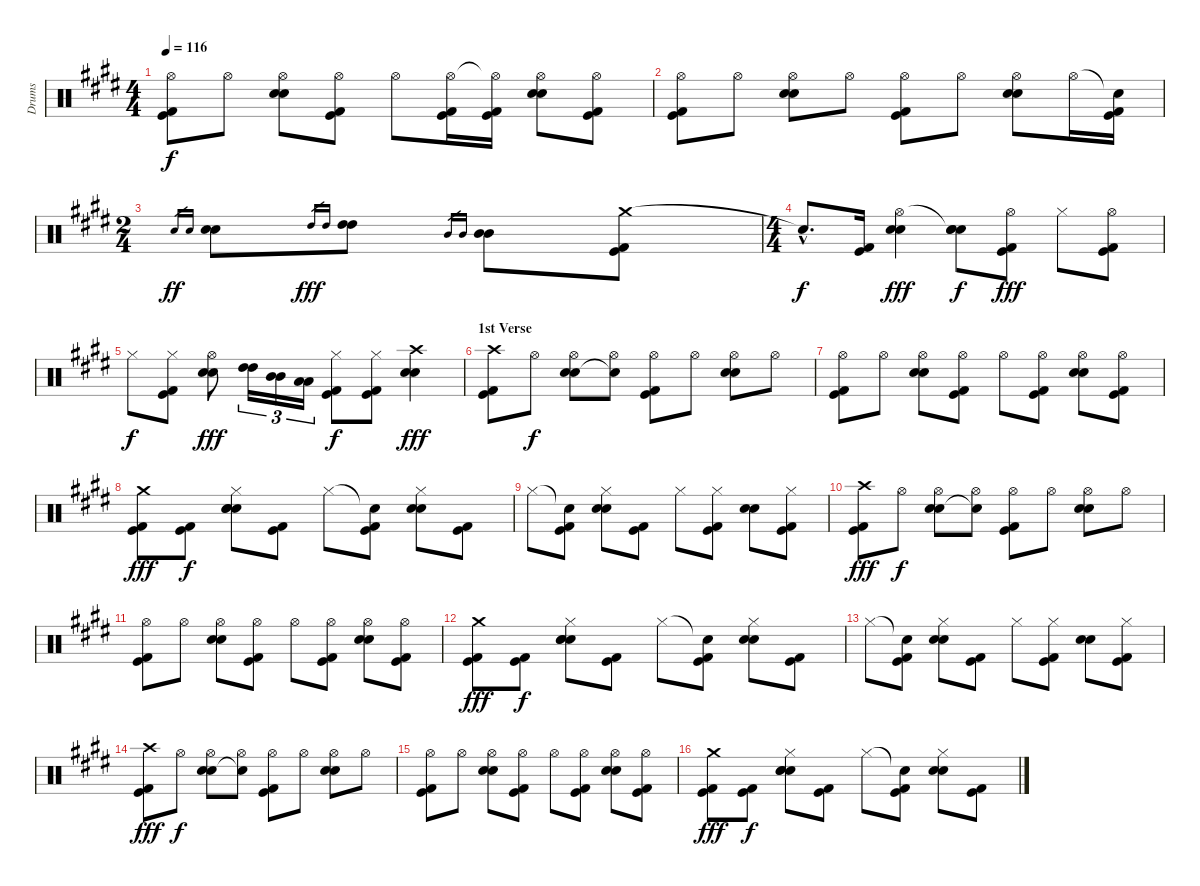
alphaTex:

\track ("Drums" "Drums") {instrument percussion}
\staff {score}
\articulation defaults
\ts (4 4)
\tempo 116
\clef neutral
\ks e
("Hi-Hat (open)" "Kick (hit)" "Kick (hit) 2").8{dy f} "Hi-Hat (open)".8 ("Hi-Hat (open)" "Electric Snare (hit)" "Snare (hit) 2").8 ("Hi-Hat (open)" "Kick (hit)" "Kick (hit) 2").8 "Hi-Hat (open)".8 ("Hi-Hat (open)" "Kick (hit)" "Kick (hit) 2").16 ("Hi-Hat (open)"{t} "Kick (hit)" "Kick (hit) 2").16 ("Hi-Hat (open)" "Electric Snare (hit)" "Snare (hit) 2").8 ("Hi-Hat (open)" "Kick (hit)" "Kick (hit) 2").8 |
("Hi-Hat (open)" "Kick (hit)" "Kick (hit) 2").8 "Hi-Hat (open)".8 ("Hi-Hat (open)" "Electric Snare (hit)" "Snare (hit) 2").8 "Hi-Hat (open)".8 ("Hi-Hat (open)" "Kick (hit)" "Kick (hit) 2").8 "Hi-Hat (open)".8 ("Hi-Hat (open)" "Electric Snare (hit)" "Snare (hit) 2").8 "Hi-Hat (open)".16 ("Snare (hit)"{t} "Kick (hit)" "Kick (hit) 2").16 |
\ts (2 4)
"Electric Snare (hit)".16{gr dy ff} "Snare (hit) 2".16{gr} ("Electric Snare (hit)" "Snare (hit) 2").8 "High Tom (hit)".16{gr dy fff} "High Tom (hit)".16{gr} ("High Tom (hit)" "High Tom (hit)").8 "Mid Tom (hit)".16{gr} "Mid Tom (hit)".16{gr} ("Mid Tom (hit)" "Mid Tom (hit)").8 ("Crash medium (hit)" "Kick (hit)" "Kick (hit) 2").8 |
\ts (4 4)
"Snare (hit)"{hac t}.8{d dy f} ("Kick (hit)" "Kick (hit) 2").16 ("Hi-Hat (open)" "Electric Snare (hit)" "Snare (hit) 2").4{dy fff} ("Snare (hit)"{t} "Electric Snare (hit)" "Snare (hit) 2").8{dy f} ("Hi-Hat (open)" "Kick (hit)" "Kick (hit) 2").8{dy fff} "Hi-Hat (closed)".8 ("Hi-Hat (open)" "Kick (hit)" "Kick (hit) 2").8 |
"Hi-Hat (closed)".8{dy f} ("Hi-Hat (closed)" "Kick (hit)" "Kick (hit) 2").8 ("Hi-Hat (open)" "Electric Snare (hit)" "Snare (hit) 2").8{dy fff} ("High Tom (hit)" "High Tom (hit)").16{tu (3 2)} ("Mid Tom (hit)" "Mid Tom (hit)").16{tu (3 2)} ("Low Tom (hit)" "Low Tom (hit)").16{tu (3 2)} ("Hi-Hat (closed)" "Kick (hit)" "Kick (hit) 2").8{dy f} ("Hi-Hat (closed)" "Kick (hit)" "Kick (hit) 2").8 ("Electric Snare (hit)" "Snare (hit) 2" "Crash high (hit)").4{dy fff} |
\section ("" "1st Verse")
("Crash high (hit)" "Kick (hit)" "Kick (hit) 2").8 "Hi-Hat (open)".8{dy f} ("Hi-Hat (open)" "Electric Snare (hit)" "Snare (hit) 2").8 ("Hi-Hat (open)" "Snare (hit)"{t}).8 ("Hi-Hat (open)" "Kick (hit)" "Kick (hit) 2").8 "Hi-Hat (open)".8 ("Hi-Hat (open)" "Electric Snare (hit)" "Snare (hit) 2").8 "Hi-Hat (open)".8 |
("Hi-Hat (open)" "Kick (hit)" "Kick (hit) 2").8 "Hi-Hat (open)".8 ("Hi-Hat (open)" "Electric Snare (hit)" "Snare (hit) 2").8 ("Hi-Hat (open)" "Kick (hit)" "Kick (hit) 2").8 "Hi-Hat (open)".8 ("Hi-Hat (open)" "Kick (hit)" "Kick (hit) 2").8 ("Hi-Hat (open)" "Electric Snare (hit)" "Snare (hit) 2").8 ("Hi-Hat (open)" "Kick (hit)" "Kick (hit) 2").8 |
("Crash medium (hit)" "Kick (hit)" "Kick (hit) 2").8{dy fff} ("Kick (hit)" "Kick (hit) 2").8{dy f} ("Hi-Hat (closed)" "Electric Snare (hit)" "Snare (hit) 2" "Snare (hit)").8 ("Kick (hit)" "Kick (hit) 2").8 "Hi-Hat (closed)".8 ("Snare (hit)"{t} "Kick (hit)" "Kick (hit) 2").8 ("Hi-Hat (closed)" "Electric Snare (hit)" "Snare (hit) 2").8 ("Kick (hit)" "Kick (hit) 2").8 |
"Hi-Hat (closed)".8 ("Snare (hit)"{t} "Kick (hit)" "Kick (hit) 2").8 ("Hi-Hat (closed)" "Electric Snare (hit)" "Snare (hit) 2").8 ("Kick (hit)" "Kick (hit) 2").8 "Hi-Hat (closed)".8 ("Hi-Hat (closed)" "Kick (hit)" "Kick (hit) 2").8 ("Electric Snare (hit)" "Snare (hit) 2").8 ("Hi-Hat (closed)" "Kick (hit)" "Kick (hit) 2").8 |
("Crash high (hit)" "Kick (hit)" "Kick (hit) 2").8{dy fff} "Hi-Hat (open)".8{dy f} ("Hi-Hat (open)" "Electric Snare (hit)" "Snare (hit) 2").8 ("Hi-Hat (open)" "Snare (hit)"{t}).8 ("Hi-Hat (open)" "Kick (hit)" "Kick (hit) 2").8 "Hi-Hat (open)".8 ("Hi-Hat (open)" "Electric Snare (hit)" "Snare (hit) 2").8 "Hi-Hat (open)".8 |
("Hi-Hat (open)" "Kick (hit)" "Kick (hit) 2").8 "Hi-Hat (open)".8 ("Hi-Hat (open)" "Electric Snare (hit)" "Snare (hit) 2").8 ("Hi-Hat (open)" "Kick (hit)" "Kick (hit) 2").8 "Hi-Hat (open)".8 ("Hi-Hat (open)" "Kick (hit)" "Kick (hit) 2").8 ("Hi-Hat (open)" "Electric Snare (hit)" "Snare (hit) 2").8 ("Hi-Hat (open)" "Kick (hit)" "Kick (hit) 2").8 |
("Crash medium (hit)" "Kick (hit)" "Kick (hit) 2").8{dy fff} ("Kick (hit)" "Kick (hit) 2").8{dy f} ("Hi-Hat (closed)" "Electric Snare (hit)" "Snare (hit) 2" "Snare (hit)").8 ("Kick (hit)" "Kick (hit) 2").8 "Hi-Hat (closed)".8 ("Snare (hit)"{t} "Kick (hit)" "Kick (hit) 2").8 ("Hi-Hat (closed)" "Electric Snare (hit)" "Snare (hit) 2").8 ("Kick (hit)" "Kick (hit) 2").8 |
"Hi-Hat (closed)".8 ("Snare (hit)"{t} "Kick (hit)" "Kick (hit) 2").8 ("Hi-Hat (closed)" "Electric Snare (hit)" "Snare (hit) 2").8 ("Kick (hit)" "Kick (hit) 2").8 "Hi-Hat (closed)".8 ("Hi-Hat (closed)" "Kick (hit)" "Kick (hit) 2").8 ("Electric Snare (hit)" "Snare (hit) 2").8 ("Hi-Hat (closed)" "Kick (hit)" "Kick (hit) 2").8 |
("Crash high (hit)" "Kick (hit)" "Kick (hit) 2").8{dy fff} "Hi-Hat (open)".8{dy f} ("Hi-Hat (open)" "Electric Snare (hit)" "Snare (hit) 2").8 ("Hi-Hat (open)" "Snare (hit)"{t}).8 ("Hi-Hat (open)" "Kick (hit)" "Kick (hit) 2").8 "Hi-Hat (open)".8 ("Hi-Hat (open)" "Electric Snare (hit)" "Snare (hit) 2").8 "Hi-Hat (open)".8 |
("Hi-Hat (open)" "Kick (hit)" "Kick (hit) 2").8 "Hi-Hat (open)".8 ("Hi-Hat (open)" "Electric Snare (hit)" "Snare (hit) 2").8 ("Hi-Hat (open)" "Kick (hit)" "Kick (hit) 2").8 "Hi-Hat (open)".8 ("Hi-Hat (open)" "Kick (hit)" "Kick (hit) 2").8 ("Hi-Hat (open)" "Electric Snare (hit)" "Snare (hit) 2").8 ("Hi-Hat (open)" "Kick (hit)" "Kick (hit) 2").8 |
("Crash medium (hit)" "Kick (hit)" "Kick (hit) 2").8{dy fff} ("Kick (hit)" "Kick (hit) 2").8{dy f} ("Hi-Hat (closed)" "Electric Snare (hit)" "Snare (hit) 2" "Snare (hit)").8 ("Kick (hit)" "Kick (hit) 2").8 "Hi-Hat (closed)".8 ("Snare (hit)"{t} "Kick (hit)" "Kick (hit) 2").8 ("Hi-Hat (closed)" "Electric Snare (hit)" "Snare (hit) 2").8 ("Kick (hit)" "Kick (hit) 2").8
